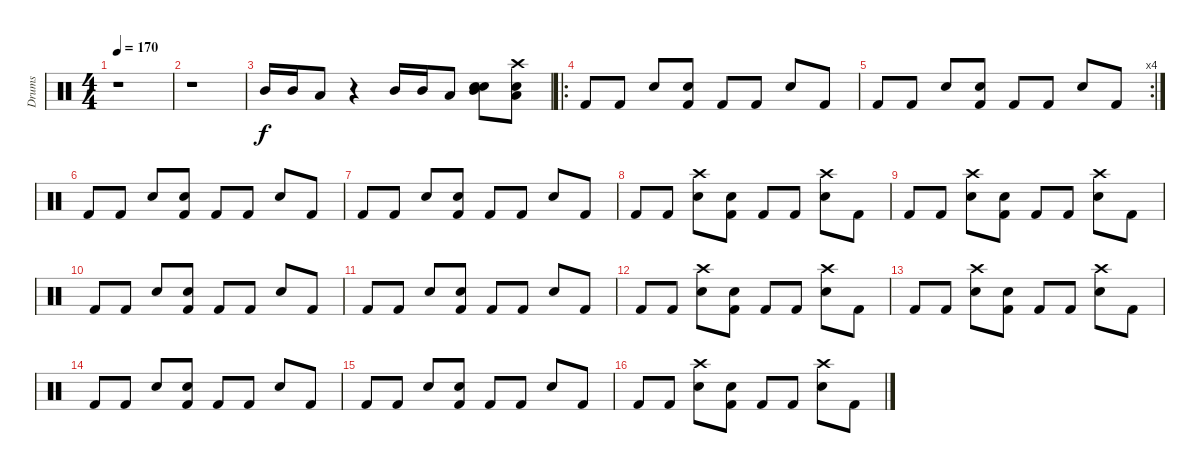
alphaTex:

\track ("Drums" "Drums") {instrument percussion}
\staff {score}
\articulation defaults
\ts (4 4)
\tempo 170
\clef neutral
\ks c
r.1{dy f} |
r.1 |
"Mid Tom (hit)".16 "Mid Tom (hit)".16 "Low Tom (hit)".8 r.4 "Mid Tom (hit)".16 "Mid Tom (hit)".16 "Low Tom (hit)".8 ("Electric Snare (hit)" "Mid Tom (hit)" "Snare (hit)").8 ("Crash high (hit)" "Low Tom (hit)" "Snare (hit)").8 |
\ro "Kick (hit) 2".8 "Kick (hit) 2".8 "Snare (hit) 2".8
("Electric Snare (hit)" "Kick (hit) 2").8 "Kick (hit) 2".8 "Kick (hit) 2".8 "Snare (hit) 2".8 "Kick (hit) 2".8 |
\rc 4 "Kick (hit) 2".8 "Kick (hit) 2".8 "Snare (hit) 2".8
("Electric Snare (hit)" "Kick (hit) 2").8 "Kick (hit) 2".8 "Kick (hit) 2".8 "Snare (hit) 2".8 "Kick (hit) 2".8 |
"Kick (hit) 2".8 "Kick (hit) 2".8 "Snare (hit) 2".8 ("Electric Snare (hit)" "Kick (hit) 2").8 "Kick (hit) 2".8 "Kick (hit) 2".8 "Snare (hit) 2".8 "Kick (hit) 2".8 |
"Kick (hit) 2".8 "Kick (hit) 2".8 "Snare (hit) 2".8 ("Electric Snare (hit)" "Kick (hit) 2").8 "Kick (hit) 2".8 "Kick (hit) 2".8 "Snare (hit) 2".8 "Kick (hit) 2".8 |
"Kick (hit) 2".8 "Kick (hit) 2".8 ("Snare (hit) 2" "Crash high (hit)").8 ("Electric Snare (hit)" "Kick (hit) 2").8 "Kick (hit) 2".8 "Kick (hit) 2".8 ("Snare (hit) 2" "Crash high (hit)").8 "Kick (hit) 2".8 |
"Kick (hit) 2".8 "Kick (hit) 2".8 ("Snare (hit) 2" "Crash high (hit)").8 ("Electric Snare (hit)" "Kick (hit) 2").8 "Kick (hit) 2".8 "Kick (hit) 2".8 ("Snare (hit) 2" "Crash high (hit)").8 "Kick (hit) 2".8 |
"Kick (hit) 2".8 "Kick (hit) 2".8 "Snare (hit) 2".8 ("Electric Snare (hit)" "Kick (hit) 2").8 "Kick (hit) 2".8 "Kick (hit) 2".8 "Snare (hit) 2".8 "Kick (hit) 2".8 |
"Kick (hit) 2".8 "Kick (hit) 2".8 "Snare (hit) 2".8 ("Electric Snare (hit)" "Kick (hit) 2").8 "Kick (hit) 2".8 "Kick (hit) 2".8 "Snare (hit) 2".8 "Kick (hit) 2".8 |
"Kick (hit) 2".8 "Kick (hit) 2".8 ("Snare (hit) 2" "Crash high (hit)").8 ("Electric Snare (hit)" "Kick (hit) 2").8 "Kick (hit) 2".8 "Kick (hit) 2".8 ("Snare (hit) 2" "Crash high (hit)").8 "Kick (hit) 2".8 |
"Kick (hit) 2".8 "Kick (hit) 2".8 ("Snare (hit) 2" "Crash high (hit)").8 ("Electric Snare (hit)" "Kick (hit) 2").8 "Kick (hit) 2".8 "Kick (hit) 2".8 ("Snare (hit) 2" "Crash high (hit)").8 "Kick (hit) 2".8 |
"Kick (hit) 2".8 "Kick (hit) 2".8 "Snare (hit) 2".8 ("Electric Snare (hit)" "Kick (hit) 2").8 "Kick (hit) 2".8 "Kick (hit) 2".8 "Snare (hit) 2".8 "Kick (hit) 2".8 |
"Kick (hit) 2".8 "Kick (hit) 2".8 "Snare (hit) 2".8 ("Electric Snare (hit)" "Kick (hit) 2").8 "Kick (hit) 2".8 "Kick (hit) 2".8 "Snare (hit) 2".8 "Kick (hit) 2".8 |
"Kick (hit) 2".8 "Kick (hit) 2".8 ("Snare (hit) 2" "Crash high (hit)").8 ("Electric Snare (hit)" "Kick (hit) 2").8 "Kick (hit) 2".8 "Kick (hit) 2".8 ("Snare (hit) 2" "Crash high (hit)").8 "Kick (hit) 2".8
